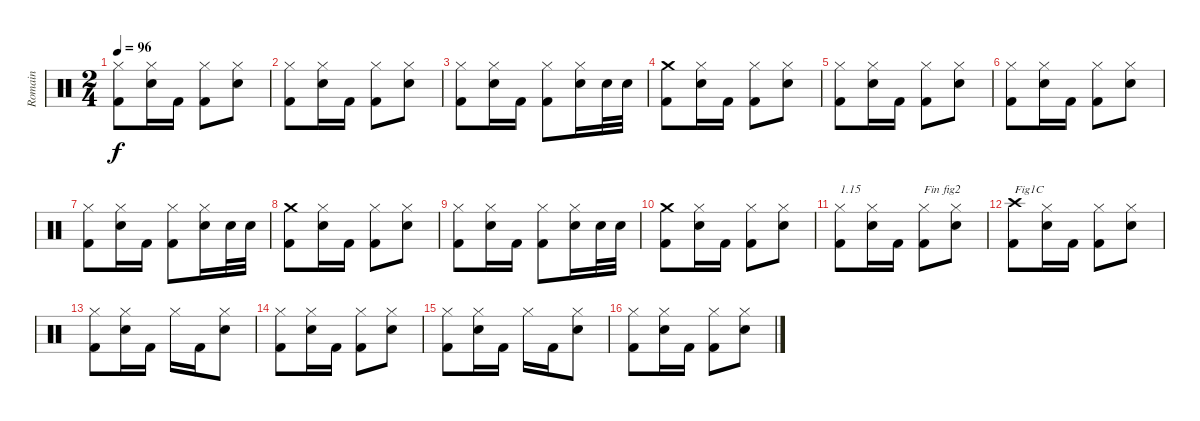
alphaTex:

\track ("Romain" "Romain") {instrument percussion}
\staff {score}
\articulation defaults
\ts (2 4)
\tempo 96
\clef neutral
\ks c
("Kick (hit) 2" "Hi-Hat (closed)").8{dy f} ("Electric Snare (hit)" "Hi-Hat (closed)").16 "Kick (hit) 2".16 ("Kick (hit) 2" "Hi-Hat (closed)").8 ("Electric Snare (hit)" "Hi-Hat (closed)").8 |
("Kick (hit) 2" "Hi-Hat (closed)").8 ("Electric Snare (hit)" "Hi-Hat (closed)").16 "Kick (hit) 2".16 ("Kick (hit) 2" "Hi-Hat (closed)").8 ("Electric Snare (hit)" "Hi-Hat (closed)").8 |
("Kick (hit) 2" "Hi-Hat (closed)").8 ("Electric Snare (hit)" "Hi-Hat (closed)").16 "Kick (hit) 2".16 ("Kick (hit) 2" "Hi-Hat (closed)").8 ("Electric Snare (hit)" "Hi-Hat (closed)").16 "Electric Snare (hit)".32 "Electric Snare (hit)".32 |
("Kick (hit) 2" "Crash medium (hit)").8 ("Electric Snare (hit)" "Hi-Hat (closed)").16 "Kick (hit) 2".16 ("Kick (hit) 2" "Hi-Hat (closed)").8 ("Electric Snare (hit)" "Hi-Hat (closed)").8 |
("Kick (hit) 2" "Hi-Hat (closed)").8 ("Electric Snare (hit)" "Hi-Hat (closed)").16 "Kick (hit) 2".16 ("Kick (hit) 2" "Hi-Hat (closed)").8 ("Electric Snare (hit)" "Hi-Hat (closed)").8 |
("Kick (hit) 2" "Hi-Hat (closed)").8 ("Electric Snare (hit)" "Hi-Hat (closed)").16 "Kick (hit) 2".16 ("Kick (hit) 2" "Hi-Hat (closed)").8 ("Electric Snare (hit)" "Hi-Hat (closed)").8 |
("Kick (hit) 2" "Hi-Hat (closed)").8 ("Electric Snare (hit)" "Hi-Hat (closed)").16 "Kick (hit) 2".16 ("Kick (hit) 2" "Hi-Hat (closed)").8 ("Electric Snare (hit)" "Hi-Hat (closed)").16 "Electric Snare (hit)".32 "Electric Snare (hit)".32 |
("Kick (hit) 2" "Crash medium (hit)").8 ("Electric Snare (hit)" "Hi-Hat (closed)").16 "Kick (hit) 2".16 ("Kick (hit) 2" "Hi-Hat (closed)").8 ("Electric Snare (hit)" "Hi-Hat (closed)").8 |
("Kick (hit) 2" "Hi-Hat (closed)").8 ("Electric Snare (hit)" "Hi-Hat (closed)").16 "Kick (hit) 2".16 ("Kick (hit) 2" "Hi-Hat (closed)").8 ("Electric Snare (hit)" "Hi-Hat (closed)").16 "Electric Snare (hit)".32 "Electric Snare (hit)".32 |
("Kick (hit) 2" "Crash medium (hit)").8 ("Electric Snare (hit)" "Hi-Hat (closed)").16 "Kick (hit) 2".16 ("Kick (hit) 2" "Hi-Hat (closed)").8 ("Electric Snare (hit)" "Hi-Hat (closed)").8 |
("Kick (hit) 2" "Hi-Hat (closed)").8{txt "1.15"} ("Electric Snare (hit)" "Hi-Hat (closed)").16 "Kick (hit) 2".16 ("Kick (hit) 2" "Hi-Hat (closed)").8{txt "Fin fig2"} ("Electric Snare (hit)" "Hi-Hat (closed)").8 |
("Kick (hit) 2" "Crash high (hit)").8{txt "Fig1C"} ("Electric Snare (hit)" "Hi-Hat (closed)").16 "Kick (hit) 2".16 ("Kick (hit) 2" "Hi-Hat (closed)").8 ("Electric Snare (hit)" "Hi-Hat (closed)").8 |
("Kick (hit) 2" "Hi-Hat (closed)").8 ("Electric Snare (hit)" "Hi-Hat (closed)").16 "Kick (hit) 2".16 "Hi-Hat (closed)".16 "Kick (hit) 2".16 ("Electric Snare (hit)" "Hi-Hat (closed)").8 |
("Kick (hit) 2" "Hi-Hat (closed)").8 ("Electric Snare (hit)" "Hi-Hat (closed)").16 "Kick (hit) 2".16 ("Kick (hit) 2" "Hi-Hat (closed)").8 ("Electric Snare (hit)" "Hi-Hat (closed)").8 |
("Kick (hit) 2" "Hi-Hat (closed)").8 ("Electric Snare (hit)" "Hi-Hat (closed)").16 "Kick (hit) 2".16 "Hi-Hat (closed)".16 "Kick (hit) 2".16 ("Electric Snare (hit)" "Hi-Hat (closed)").8 |
("Kick (hit) 2" "Hi-Hat (closed)").8 ("Electric Snare (hit)" "Hi-Hat (closed)").16 "Kick (hit) 2".16 ("Kick (hit) 2" "Hi-Hat (closed)").8 ("Electric Snare (hit)" "Hi-Hat (closed)").8
